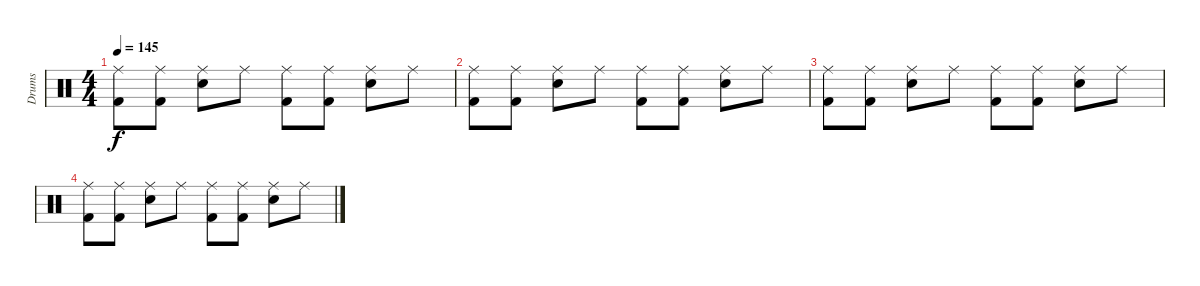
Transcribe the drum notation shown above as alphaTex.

\track ("Drums" "Drums") {instrument percussion}
\staff {score}
\articulation defaults
\ts (4 4)
\tempo 145
\clef neutral
\ks c
("Ride (middle)" "Kick (hit) 2").8{dy f} ("Ride (middle)" "Kick (hit) 2").8 ("Ride (middle)" "Snare (hit) 2").8 "Ride (middle)".8 ("Ride (middle)" "Kick (hit) 2").8 ("Ride (middle)" "Kick (hit) 2").8 ("Ride (middle)" "Snare (hit) 2").8 "Ride (middle)".8 |
("Ride (middle)" "Kick (hit) 2").8 ("Ride (middle)" "Kick (hit) 2").8 ("Ride (middle)" "Snare (hit) 2").8 "Ride (middle)".8 ("Ride (middle)" "Kick (hit) 2").8 ("Ride (middle)" "Kick (hit) 2").8 ("Ride (middle)" "Snare (hit) 2").8 "Ride (middle)".8 |
("Ride (middle)" "Kick (hit) 2").8 ("Ride (middle)" "Kick (hit) 2").8 ("Ride (middle)" "Snare (hit) 2").8 "Ride (middle)".8 ("Ride (middle)" "Kick (hit) 2").8 ("Ride (middle)" "Kick (hit) 2").8 ("Ride (middle)" "Snare (hit) 2").8 "Ride (middle)".8 |
("Ride (middle)" "Kick (hit) 2").8 ("Ride (middle)" "Kick (hit) 2").8 ("Ride (middle)" "Snare (hit) 2").8 "Ride (middle)".8 ("Ride (middle)" "Kick (hit) 2").8 ("Ride (middle)" "Kick (hit) 2").8 ("Ride (middle)" "Snare (hit) 2").8 "Ride (middle)".8
